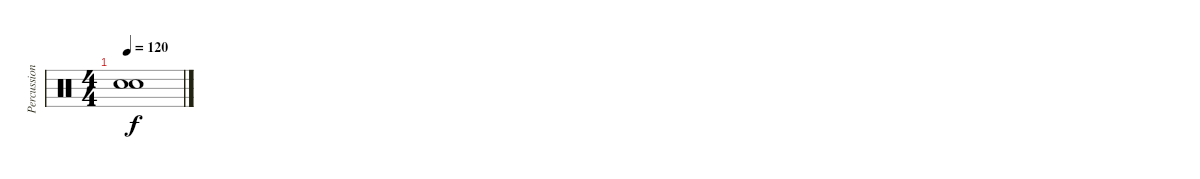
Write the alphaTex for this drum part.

\track ("Percussion" "Percussion") {instrument percussion}
\staff {score}
\articulation defaults
\ts (4 4)
\tempo 120
\clef neutral
\ks c
("Snare (hit)"{t} "Snare (hit)"{t}).1{dy f}
